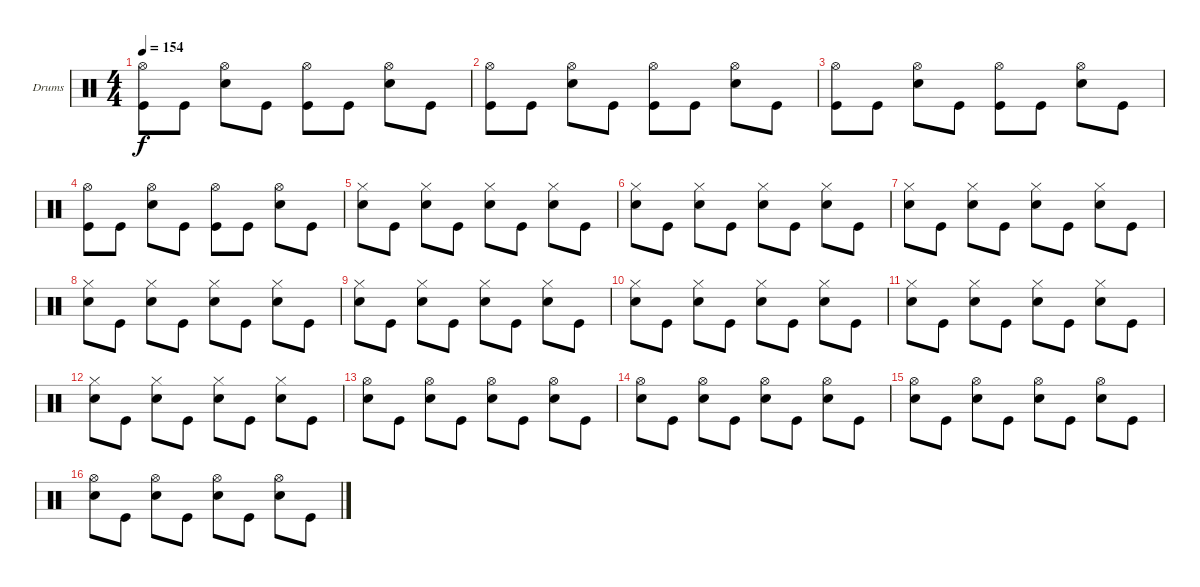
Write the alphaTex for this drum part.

\defaultSystemsLayout 4
\bracketExtendMode groupsimilarinstruments
\firstSystemTrackNameOrientation horizontal
\otherSystemsTrackNameOrientation horizontal
\track ("Drumkit" "Drums") {instrument percussion}
\staff {score}
\articulation defaults
\ts (4 4)
\tempo 154
\clef neutral
\scale
1.02648
\ks c
("Hi-Hat (open)" "Kick (hit)").8{dy f} "Kick (hit)".8 ("Hi-Hat (open)" "Snare (hit) 2").8 "Kick (hit)".8 ("Hi-Hat (open)" "Kick (hit)").8 "Kick (hit)".8 ("Hi-Hat (open)" "Snare (hit) 2").8 "Kick (hit)".8 |
\scale
0.973518 ("Hi-Hat (open)" "Kick (hit)").8 "Kick (hit)".8 ("Hi-Hat (open)" "Snare (hit) 2").8 "Kick (hit)".8 ("Hi-Hat (open)" "Kick (hit)").8 "Kick (hit)".8 ("Hi-Hat (open)" "Snare (hit) 2").8 "Kick (hit)".8 |
\scale
1.02648 ("Hi-Hat (open)" "Kick (hit)").8 "Kick (hit)".8 ("Hi-Hat (open)" "Snare (hit) 2").8 "Kick (hit)".8 ("Hi-Hat (open)" "Kick (hit)").8 "Kick (hit)".8 ("Hi-Hat (open)" "Snare (hit) 2").8 "Kick (hit)".8 |
\scale
0.973518 ("Hi-Hat (open)" "Kick (hit)").8 "Kick (hit)".8 ("Hi-Hat (open)" "Snare (hit) 2").8 "Kick (hit)".8 ("Hi-Hat (open)" "Kick (hit)").8 "Kick (hit)".8 ("Hi-Hat (open)" "Snare (hit) 2").8 "Kick (hit)".8 |
\scale
1.02648 ("Hi-Hat (closed)" "Snare (hit) 2").8 "Kick (hit)".8 ("Hi-Hat (closed)" "Snare (hit) 2").8 "Kick (hit)".8 ("Hi-Hat (closed)" "Snare (hit) 2").8 "Kick (hit)".8 ("Hi-Hat (closed)" "Snare (hit) 2").8 "Kick (hit)".8 |
\scale
0.973518 ("Hi-Hat (closed)" "Snare (hit) 2").8 "Kick (hit)".8 ("Hi-Hat (closed)" "Snare (hit) 2").8 "Kick (hit)".8 ("Hi-Hat (closed)" "Snare (hit) 2").8 "Kick (hit)".8 ("Hi-Hat (closed)" "Snare (hit) 2").8 "Kick (hit)".8 |
\scale
1.02648 ("Hi-Hat (closed)" "Snare (hit) 2").8 "Kick (hit)".8 ("Hi-Hat (closed)" "Snare (hit) 2").8 "Kick (hit)".8 ("Hi-Hat (closed)" "Snare (hit) 2").8 "Kick (hit)".8 ("Hi-Hat (closed)" "Snare (hit) 2").8 "Kick (hit)".8 |
\scale
0.973518 ("Hi-Hat (closed)" "Snare (hit) 2").8 "Kick (hit)".8 ("Hi-Hat (closed)" "Snare (hit) 2").8 "Kick (hit)".8 ("Hi-Hat (closed)" "Snare (hit) 2").8 "Kick (hit)".8 ("Hi-Hat (closed)" "Snare (hit) 2").8 "Kick (hit)".8 |
\scale
1.02648 ("Hi-Hat (closed)" "Snare (hit) 2").8 "Kick (hit)".8 ("Hi-Hat (closed)" "Snare (hit) 2").8 "Kick (hit)".8 ("Hi-Hat (closed)" "Snare (hit) 2").8 "Kick (hit)".8 ("Hi-Hat (closed)" "Snare (hit) 2").8 "Kick (hit)".8 |
\scale
0.973518 ("Hi-Hat (closed)" "Snare (hit) 2").8 "Kick (hit)".8 ("Hi-Hat (closed)" "Snare (hit) 2").8 "Kick (hit)".8 ("Hi-Hat (closed)" "Snare (hit) 2").8 "Kick (hit)".8 ("Hi-Hat (closed)" "Snare (hit) 2").8 "Kick (hit)".8 |
\scale
1.02648 ("Hi-Hat (closed)" "Snare (hit) 2").8 "Kick (hit)".8 ("Hi-Hat (closed)" "Snare (hit) 2").8 "Kick (hit)".8 ("Hi-Hat (closed)" "Snare (hit) 2").8 "Kick (hit)".8 ("Hi-Hat (closed)" "Snare (hit) 2").8 "Kick (hit)".8 |
\scale
0.973518 ("Hi-Hat (closed)" "Snare (hit) 2").8 "Kick (hit)".8 ("Hi-Hat (closed)" "Snare (hit) 2").8 "Kick (hit)".8 ("Hi-Hat (closed)" "Snare (hit) 2").8 "Kick (hit)".8 ("Hi-Hat (closed)" "Snare (hit) 2").8 "Kick (hit)".8 |
\scale
1.02648 ("Hi-Hat (open)" "Snare (hit) 2").8 "Kick (hit)".8 ("Hi-Hat (open)" "Snare (hit) 2").8 "Kick (hit)".8 ("Hi-Hat (open)" "Snare (hit) 2").8 "Kick (hit)".8 ("Hi-Hat (open)" "Snare (hit) 2").8 "Kick (hit)".8 |
\scale
0.973518 ("Hi-Hat (open)" "Snare (hit) 2").8 "Kick (hit)".8 ("Hi-Hat (open)" "Snare (hit) 2").8 "Kick (hit)".8 ("Hi-Hat (open)" "Snare (hit) 2").8 "Kick (hit)".8 ("Hi-Hat (open)" "Snare (hit) 2").8 "Kick (hit)".8 |
\scale
1.02648 ("Hi-Hat (open)" "Snare (hit) 2").8 "Kick (hit)".8 ("Hi-Hat (open)" "Snare (hit) 2").8 "Kick (hit)".8 ("Hi-Hat (open)" "Snare (hit) 2").8 "Kick (hit)".8 ("Hi-Hat (open)" "Snare (hit) 2").8 "Kick (hit)".8 |
\scale
0.973518 ("Hi-Hat (open)" "Snare (hit) 2").8 "Kick (hit)".8 ("Hi-Hat (open)" "Snare (hit) 2").8 "Kick (hit)".8 ("Hi-Hat (open)" "Snare (hit) 2").8 "Kick (hit)".8 ("Hi-Hat (open)" "Snare (hit) 2").8 "Kick (hit)".8
